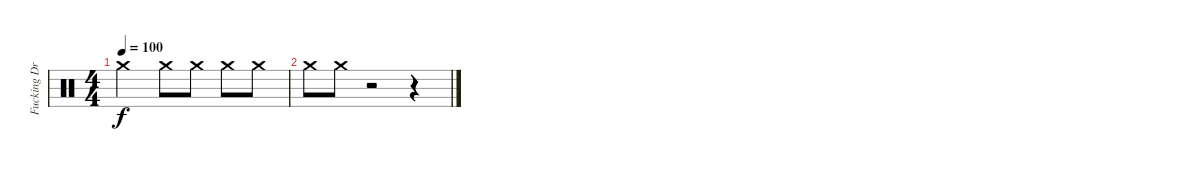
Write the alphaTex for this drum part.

\track ("Fucking Drums Thats It" "Fucking Dr") {instrument percussion}
\staff {score}
\articulation defaults
\ts (4 4)
\tempo 100
\clef neutral
\ks c "Crash medium (hit)".2{dy f} "Crash medium (hit)".8 "Crash medium (hit)".8 "Crash medium (hit)".8 "Crash medium (hit)".8
|
"Crash medium (hit)".8 "Crash medium (hit)".8 r.2 r.4
